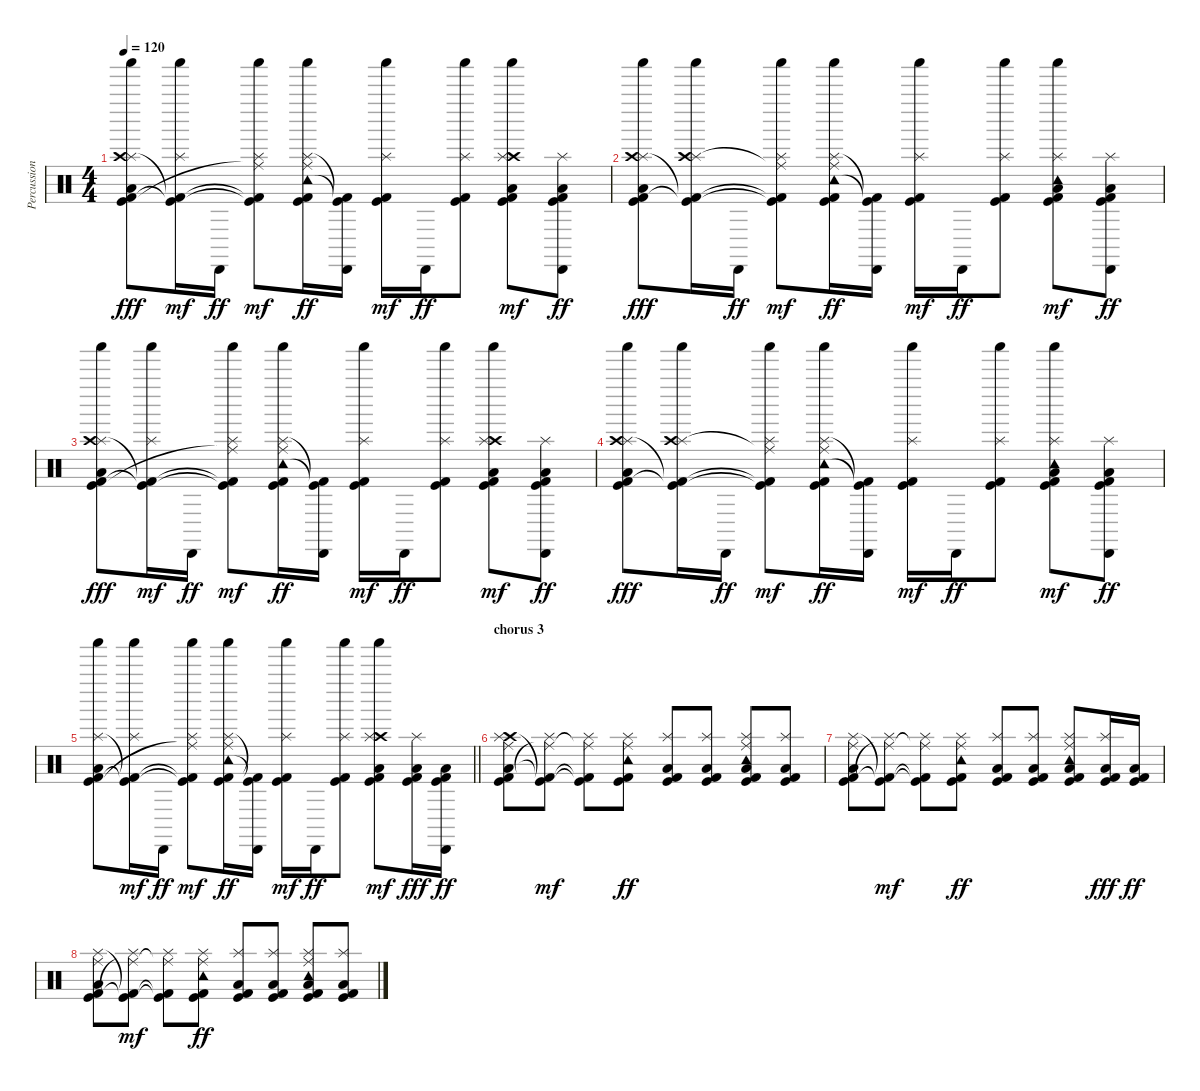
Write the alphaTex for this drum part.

\track ("Percussion" "Percussion") {instrument percussion}
\staff {score}
\articulation defaults
\ts (4 4)
\tempo 120
\clef neutral
\ks c
("Shaker (hit)" "Low Tom (hit)" "Splash (hit)" "Kick (hit) 2" "Kick (hit)" "Crash high (hit)").8{dy fff} ("Shaker (hit)" "Splash (hit)" "Kick (hit) 2"{t} "Kick (hit)"{t}).16{dy mf} "Cabasa (hit)".16{dy ff} ("Shaker (hit)" "Splash (hit)" "Kick (hit) 2"{t} "Kick (hit)"{t} "Ride (middle)"{t}).8{dy mf} ("Shaker (hit)" "Tambourine (hit)" "Splash (hit)" "Ride (middle)" "Kick (hit) 2" "Kick (hit)").16{dy ff} ("Cabasa (hit)" "Kick (hit)"{t} "Kick (hit) 2"{t}).16 ("Shaker (hit)" "Splash (hit)" "Kick (hit)" "Kick (hit) 2").16{dy mf} "Cabasa (hit)".16{dy ff} ("Shaker (hit)" "Splash (hit)" "Kick (hit)" "Kick (hit) 2").8 ("Shaker (hit)" "Crash high (hit)" "Splash (hit)" "Low Tom (hit)" "Kick (hit) 2" "Kick (hit)").8{dy mf} ("Cabasa (hit)" "Splash (hit)" "Low Tom (hit)" "Kick (hit)" "Kick (hit) 2").8{dy ff} |
("Shaker (hit)" "Low Tom (hit)" "Splash (hit)" "Kick (hit) 2" "Kick (hit)" "Crash high (hit)").8{dy fff} ("Shaker (hit)" "Splash (hit)" "Kick (hit) 2"{t} "Kick (hit)"{t} "Crash high (hit)").16 "Cabasa (hit)".16{dy ff} ("Shaker (hit)" "Splash (hit)" "Kick (hit) 2"{t} "Kick (hit)"{t} "Ride (middle)"{t}).8{dy mf} ("Shaker (hit)" "Tambourine (hit)" "Splash (hit)" "Ride (middle)" "Kick (hit) 2" "Kick (hit)").16{dy ff} ("Cabasa (hit)" "Kick (hit)"{t} "Kick (hit) 2"{t}).16 ("Shaker (hit)" "Splash (hit)" "Kick (hit)" "Kick (hit) 2").16{dy mf} "Cabasa (hit)".16{dy ff} ("Shaker (hit)" "Splash (hit)" "Kick (hit)" "Kick (hit) 2").8 ("Shaker (hit)" "Tambourine (hit)" "Splash (hit)" "Low Tom (hit)" "Kick (hit) 2" "Kick (hit)").8{dy mf} ("Cabasa (hit)" "Splash (hit)" "Low Tom (hit)" "Kick (hit)" "Kick (hit) 2").8{dy ff} |
("Shaker (hit)" "Low Tom (hit)" "Splash (hit)" "Kick (hit) 2" "Kick (hit)" "Crash high (hit)").8{dy fff} ("Shaker (hit)" "Splash (hit)" "Kick (hit) 2"{t} "Kick (hit)"{t}).16{dy mf} "Cabasa (hit)".16{dy ff} ("Shaker (hit)" "Splash (hit)" "Kick (hit) 2"{t} "Kick (hit)"{t} "Ride (middle)"{t}).8{dy mf} ("Shaker (hit)" "Tambourine (hit)" "Splash (hit)" "Ride (middle)" "Kick (hit) 2" "Kick (hit)").16{dy ff} ("Cabasa (hit)" "Kick (hit)"{t} "Kick (hit) 2"{t}).16 ("Shaker (hit)" "Splash (hit)" "Kick (hit)" "Kick (hit) 2").16{dy mf} "Cabasa (hit)".16{dy ff} ("Shaker (hit)" "Splash (hit)" "Kick (hit)" "Kick (hit) 2").8 ("Shaker (hit)" "Crash high (hit)" "Splash (hit)" "Low Tom (hit)" "Kick (hit) 2" "Kick (hit)").8{dy mf} ("Cabasa (hit)" "Splash (hit)" "Low Tom (hit)" "Kick (hit)" "Kick (hit) 2").8{dy ff} |
("Shaker (hit)" "Low Tom (hit)" "Splash (hit)" "Kick (hit) 2" "Kick (hit)" "Crash high (hit)").8{dy fff} ("Shaker (hit)" "Splash (hit)" "Kick (hit) 2"{t} "Kick (hit)"{t} "Crash high (hit)").16 "Cabasa (hit)".16{dy ff} ("Shaker (hit)" "Splash (hit)" "Kick (hit) 2"{t} "Kick (hit)"{t} "Ride (middle)"{t}).8{dy mf} ("Shaker (hit)" "Tambourine (hit)" "Splash (hit)" "Ride (middle)" "Kick (hit) 2" "Kick (hit)").16{dy ff} ("Cabasa (hit)" "Kick (hit)"{t} "Kick (hit) 2"{t}).16 ("Shaker (hit)" "Splash (hit)" "Kick (hit)" "Kick (hit) 2").16{dy mf} "Cabasa (hit)".16{dy ff} ("Shaker (hit)" "Splash (hit)" "Kick (hit)" "Kick (hit) 2").8 ("Shaker (hit)" "Tambourine (hit)" "Splash (hit)" "Low Tom (hit)" "Kick (hit) 2" "Kick (hit)").8{dy mf} ("Cabasa (hit)" "Splash (hit)" "Low Tom (hit)" "Kick (hit)" "Kick (hit) 2").8{dy ff} |
\barLineRight lightlight
("Shaker (hit)" "Low Tom (hit)" "Splash (hit)" "Kick (hit) 2" "Kick (hit)").8 ("Shaker (hit)" "Splash (hit)" "Kick (hit) 2"{t} "Kick (hit)"{t}).16{dy mf} "Cabasa (hit)".16{dy ff} ("Shaker (hit)" "Splash (hit)" "Kick (hit) 2"{t} "Kick (hit)"{t} "Ride (middle)"{t}).8{dy mf} ("Shaker (hit)" "Tambourine (hit)" "Splash (hit)" "Ride (middle)" "Kick (hit) 2" "Kick (hit)").16{dy ff} ("Cabasa (hit)" "Kick (hit)"{t} "Kick (hit) 2"{t}).16 ("Shaker (hit)" "Splash (hit)" "Kick (hit)" "Kick (hit) 2").16{dy mf} "Cabasa (hit)".16{dy ff} ("Shaker (hit)" "Splash (hit)" "Kick (hit)" "Kick (hit) 2").8 ("Shaker (hit)" "Crash high (hit)" "Splash (hit)" "Low Tom (hit)" "Kick (hit) 2" "Kick (hit)").8{dy mf} ("Splash (hit)" "Kick (hit)" "Low Tom (hit)" "Kick (hit) 2").16{dy fff} ("Cabasa (hit)" "Low Tom (hit)" "Kick (hit)" "Kick (hit) 2").16{dy ff} |
\section ("" "chorus 3")
("Crash high (hit)" "Low Tom (hit)" "Splash (hit)" "Kick (hit) 2" "Kick (hit)" "Ride (middle)").8 ("Splash (hit)" "Kick (hit) 2"{t} "Kick (hit)"{t} "Ride (middle)"{t}).8{dy mf} ("Splash (hit)" "Kick (hit) 2"{t} "Kick (hit)"{t} "Ride (middle)"{t}).8 ("Tambourine (hit)" "Splash (hit)" "Kick (hit) 2" "Kick (hit)" "Ride (middle)").8{dy ff} ("Splash (hit)" "Low Tom (hit)" "Kick (hit)" "Kick (hit) 2").8 ("Splash (hit)" "Low Tom (hit)" "Kick (hit)" "Kick (hit) 2").8 ("Tambourine (hit)" "Kick (hit) 2" "Splash (hit)" "Low Tom (hit)" "Kick (hit)" "Ride (middle)").8 ("Splash (hit)" "Low Tom (hit)" "Kick (hit)" "Kick (hit) 2").8 |
("Low Tom (hit)" "Splash (hit)" "Kick (hit) 2" "Kick (hit)" "Ride (middle)").8 ("Splash (hit)" "Kick (hit) 2"{t} "Kick (hit)"{t} "Ride (middle)"{t}).8{dy mf} ("Splash (hit)" "Kick (hit) 2"{t} "Kick (hit)"{t} "Ride (middle)"{t}).8 ("Tambourine (hit)" "Splash (hit)" "Kick (hit) 2" "Kick (hit)" "Ride (middle)").8{dy ff} ("Splash (hit)" "Low Tom (hit)" "Kick (hit)" "Kick (hit) 2").8 ("Splash (hit)" "Low Tom (hit)" "Kick (hit)" "Kick (hit) 2").8 ("Tambourine (hit)" "Kick (hit) 2" "Splash (hit)" "Low Tom (hit)" "Kick (hit)" "Ride (middle)").8 ("Splash (hit)" "Low Tom (hit)" "Kick (hit)" "Kick (hit) 2").16{dy fff} ("Low Tom (hit)" "Kick (hit)" "Kick (hit) 2").16{dy ff} |
("Low Tom (hit)" "Splash (hit)" "Kick (hit) 2" "Kick (hit)" "Ride (middle)").8 ("Splash (hit)" "Kick (hit) 2"{t} "Kick (hit)"{t} "Ride (middle)"{t}).8{dy mf} ("Splash (hit)" "Kick (hit) 2"{t} "Kick (hit)"{t} "Ride (middle)"{t}).8 ("Tambourine (hit)" "Splash (hit)" "Kick (hit) 2" "Kick (hit)" "Ride (middle)").8{dy ff} ("Splash (hit)" "Low Tom (hit)" "Kick (hit)" "Kick (hit) 2").8 ("Splash (hit)" "Low Tom (hit)" "Kick (hit)" "Kick (hit) 2").8 ("Tambourine (hit)" "Kick (hit) 2" "Splash (hit)" "Low Tom (hit)" "Kick (hit)" "Ride (middle)").8 ("Splash (hit)" "Low Tom (hit)" "Kick (hit)" "Kick (hit) 2").8
